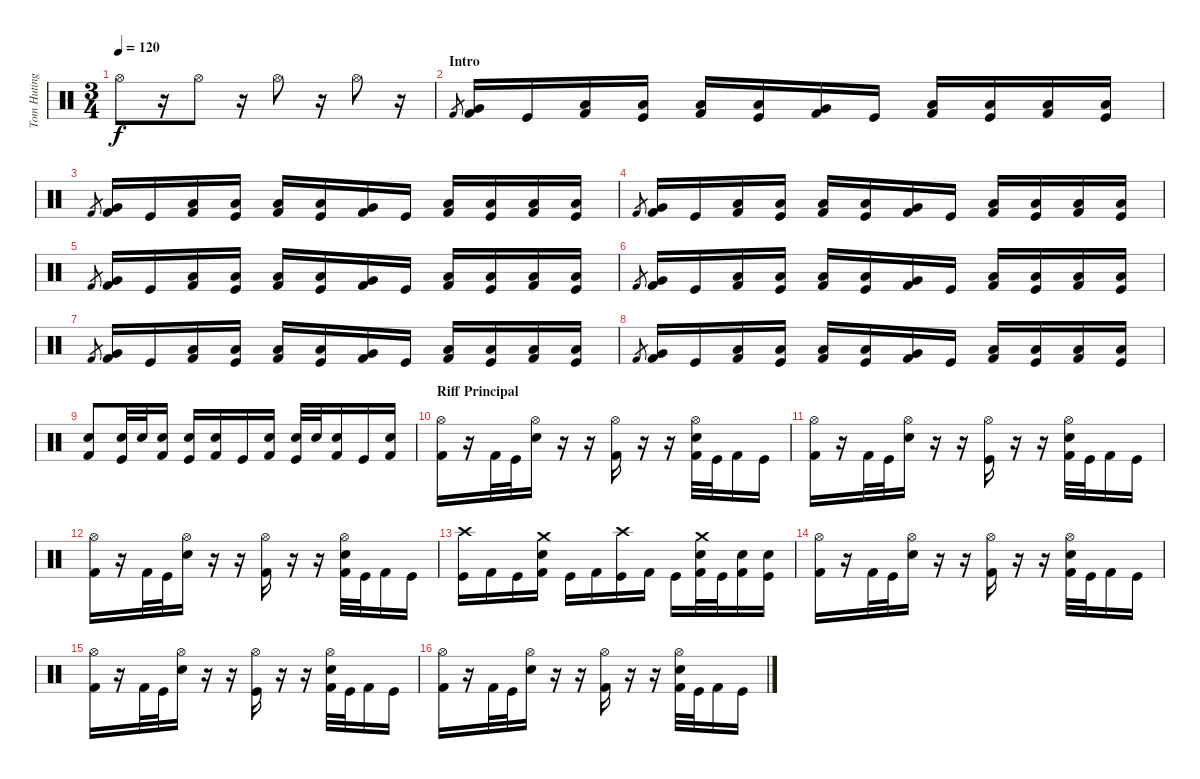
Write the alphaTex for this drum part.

\track ("Tom Huting" "Tom Huting") {instrument percussion}
\staff {score}
\articulation defaults
\ts (3 4)
\tempo 120
\clef neutral
\ks c "Hi-Hat (open)".8{dy f}
r.16 "Hi-Hat (open)".8 r.16 "Hi-Hat (open)".8 r.16 "Hi-Hat (open)".8 r.16 |
\section ("" "Intro")
"Kick (hit) 2".8{gr} ("Kick (hit) 2" "Very Low Tom (hit)").16{volume 8} "Kick (hit)".16 ("Kick (hit) 2" "Low Tom (hit)").16 ("Kick (hit)" "Low Tom (hit)").16 ("Kick (hit) 2" "Low Tom (hit)").16 ("Kick (hit)" "Low Tom (hit)").16 ("Kick (hit) 2" "Very Low Tom (hit)").16 "Kick (hit)".16 ("Kick (hit) 2" "Low Tom (hit)").16 ("Kick (hit)" "Low Tom (hit)").16 ("Kick (hit) 2" "Low Tom (hit)").16 ("Kick (hit)" "Low Tom (hit)").16 |
"Kick (hit) 2".8{gr} ("Kick (hit) 2" "Very Low Tom (hit)").16{volume 8} "Kick (hit)".16 ("Kick (hit) 2" "Low Tom (hit)").16 ("Kick (hit)" "Low Tom (hit)").16 ("Kick (hit) 2" "Low Tom (hit)").16 ("Kick (hit)" "Low Tom (hit)").16 ("Kick (hit) 2" "Very Low Tom (hit)").16 "Kick (hit)".16 ("Kick (hit) 2" "Low Tom (hit)").16 ("Kick (hit)" "Low Tom (hit)").16 ("Kick (hit) 2" "Low Tom (hit)").16 ("Kick (hit)" "Low Tom (hit)").16 |
"Kick (hit) 2".8{gr} ("Kick (hit) 2" "Very Low Tom (hit)").16{volume 8} "Kick (hit)".16 ("Kick (hit) 2" "Low Tom (hit)").16 ("Kick (hit)" "Low Tom (hit)").16 ("Kick (hit) 2" "Low Tom (hit)").16 ("Kick (hit)" "Low Tom (hit)").16 ("Kick (hit) 2" "Very Low Tom (hit)").16 "Kick (hit)".16 ("Kick (hit) 2" "Low Tom (hit)").16 ("Kick (hit)" "Low Tom (hit)").16 ("Kick (hit) 2" "Low Tom (hit)").16 ("Kick (hit)" "Low Tom (hit)").16 |
"Kick (hit) 2".8{gr} ("Kick (hit) 2" "Very Low Tom (hit)").16{volume 8} "Kick (hit)".16 ("Kick (hit) 2" "Low Tom (hit)").16 ("Kick (hit)" "Low Tom (hit)").16 ("Kick (hit) 2" "Low Tom (hit)").16 ("Kick (hit)" "Low Tom (hit)").16 ("Kick (hit) 2" "Very Low Tom (hit)").16 "Kick (hit)".16 ("Kick (hit) 2" "Low Tom (hit)").16 ("Kick (hit)" "Low Tom (hit)").16 ("Kick (hit) 2" "Low Tom (hit)").16 ("Kick (hit)" "Low Tom (hit)").16 |
"Kick (hit) 2".8{gr} ("Kick (hit) 2" "Very Low Tom (hit)").16{volume 8} "Kick (hit)".16 ("Kick (hit) 2" "Low Tom (hit)").16 ("Kick (hit)" "Low Tom (hit)").16 ("Kick (hit) 2" "Low Tom (hit)").16 ("Kick (hit)" "Low Tom (hit)").16 ("Kick (hit) 2" "Very Low Tom (hit)").16 "Kick (hit)".16 ("Kick (hit) 2" "Low Tom (hit)").16 ("Kick (hit)" "Low Tom (hit)").16 ("Kick (hit) 2" "Low Tom (hit)").16 ("Kick (hit)" "Low Tom (hit)").16 |
"Kick (hit) 2".8{gr} ("Kick (hit) 2" "Very Low Tom (hit)").16{volume 8} "Kick (hit)".16 ("Kick (hit) 2" "Low Tom (hit)").16 ("Kick (hit)" "Low Tom (hit)").16 ("Kick (hit) 2" "Low Tom (hit)").16 ("Kick (hit)" "Low Tom (hit)").16 ("Kick (hit) 2" "Very Low Tom (hit)").16 "Kick (hit)".16 ("Kick (hit) 2" "Low Tom (hit)").16 ("Kick (hit)" "Low Tom (hit)").16 ("Kick (hit) 2" "Low Tom (hit)").16 ("Kick (hit)" "Low Tom (hit)").16 |
"Kick (hit) 2".8{gr} ("Kick (hit) 2" "Very Low Tom (hit)").16{volume 8} "Kick (hit)".16 ("Kick (hit) 2" "Low Tom (hit)").16 ("Kick (hit)" "Low Tom (hit)").16 ("Kick (hit) 2" "Low Tom (hit)").16 ("Kick (hit)" "Low Tom (hit)").16 ("Kick (hit) 2" "Very Low Tom (hit)").16 "Kick (hit)".16 ("Kick (hit) 2" "Low Tom (hit)").16 ("Kick (hit)" "Low Tom (hit)").16 ("Kick (hit) 2" "Low Tom (hit)").16 ("Kick (hit)" "Low Tom (hit)").16 |
("Kick (hit) 2" "Snare (hit) 2").8{volume 10} ("Kick (hit)" "Snare (hit) 2").32 "Snare (hit) 2".32 ("Kick (hit) 2" "Snare (hit) 2").16 ("Kick (hit)" "Snare (hit) 2").16 ("Kick (hit) 2" "Snare (hit) 2").16 "Kick (hit)".16 ("Kick (hit) 2" "Snare (hit) 2").16 ("Kick (hit)" "Snare (hit) 2").32 "Snare (hit) 2".32 ("Kick (hit) 2" "Snare (hit) 2").16 "Kick (hit)".16 ("Kick (hit) 2" "Snare (hit) 2").16 |
\section ("" "Riff Principal")
("Kick (hit) 2" "Hi-Hat (open)").16{volume 14} r.16 "Kick (hit) 2".32 "Kick (hit)".32 ("Snare (hit) 2" "Hi-Hat (open)").16 r.16 r.16 ("Kick (hit) 2" "Hi-Hat (open)").16 r.16 r.16 ("Kick (hit) 2" "Snare (hit) 2" "Hi-Hat (open)").32 "Kick (hit)".32 "Kick (hit) 2".16 "Kick (hit)".16 |
("Kick (hit) 2" "Hi-Hat (open)").16 r.16 "Kick (hit) 2".32 "Kick (hit)".32 ("Snare (hit) 2" "Hi-Hat (open)").16 r.16 r.16 ("Kick (hit)" "Hi-Hat (open)").16 r.16 r.16 ("Kick (hit) 2" "Snare (hit) 2" "Hi-Hat (open)").32 "Kick (hit)".32 "Kick (hit) 2".16 "Kick (hit)".16 |
("Kick (hit) 2" "Hi-Hat (open)").16 r.16 "Kick (hit) 2".32 "Kick (hit)".32 ("Snare (hit) 2" "Hi-Hat (open)").16 r.16 r.16 ("Kick (hit) 2" "Hi-Hat (open)").16 r.16 r.16 ("Kick (hit) 2" "Snare (hit) 2" "Hi-Hat (open)").32 "Kick (hit)".32 "Kick (hit) 2".16 "Kick (hit)".16 |
("Kick (hit)" "Crash high (hit)").16 "Kick (hit) 2".16 "Kick (hit)".16 ("Kick (hit) 2" "Snare (hit) 2" "Crash medium (hit)").16 "Kick (hit)".16 "Kick (hit) 2".16 ("Kick (hit)" "Crash high (hit)").16 "Kick (hit) 2".16 "Kick (hit)".16 ("Kick (hit) 2" "Snare (hit) 2" "Crash medium (hit)").32 "Kick (hit)".32 ("Kick (hit) 2" "Snare (hit) 2").16 ("Kick (hit)" "Snare (hit) 2").16 |
("Kick (hit) 2" "Hi-Hat (open)").16 r.16 "Kick (hit) 2".32 "Kick (hit)".32 ("Snare (hit) 2" "Hi-Hat (open)").16 r.16 r.16 ("Kick (hit) 2" "Hi-Hat (open)").16 r.16 r.16 ("Kick (hit) 2" "Snare (hit) 2" "Hi-Hat (open)").32 "Kick (hit)".32 "Kick (hit) 2".16 "Kick (hit)".16 |
("Kick (hit) 2" "Hi-Hat (open)").16 r.16 "Kick (hit) 2".32 "Kick (hit)".32 ("Snare (hit) 2" "Hi-Hat (open)").16 r.16 r.16 ("Kick (hit)" "Hi-Hat (open)").16 r.16 r.16 ("Kick (hit) 2" "Snare (hit) 2" "Hi-Hat (open)").32 "Kick (hit)".32 "Kick (hit) 2".16 "Kick (hit)".16 |
("Kick (hit) 2" "Hi-Hat (open)").16 r.16 "Kick (hit) 2".32 "Kick (hit)".32 ("Snare (hit) 2" "Hi-Hat (open)").16 r.16 r.16 ("Kick (hit) 2" "Hi-Hat (open)").16 r.16 r.16 ("Kick (hit) 2" "Snare (hit) 2" "Hi-Hat (open)").32 "Kick (hit)".32 "Kick (hit) 2".16 "Kick (hit)".16
